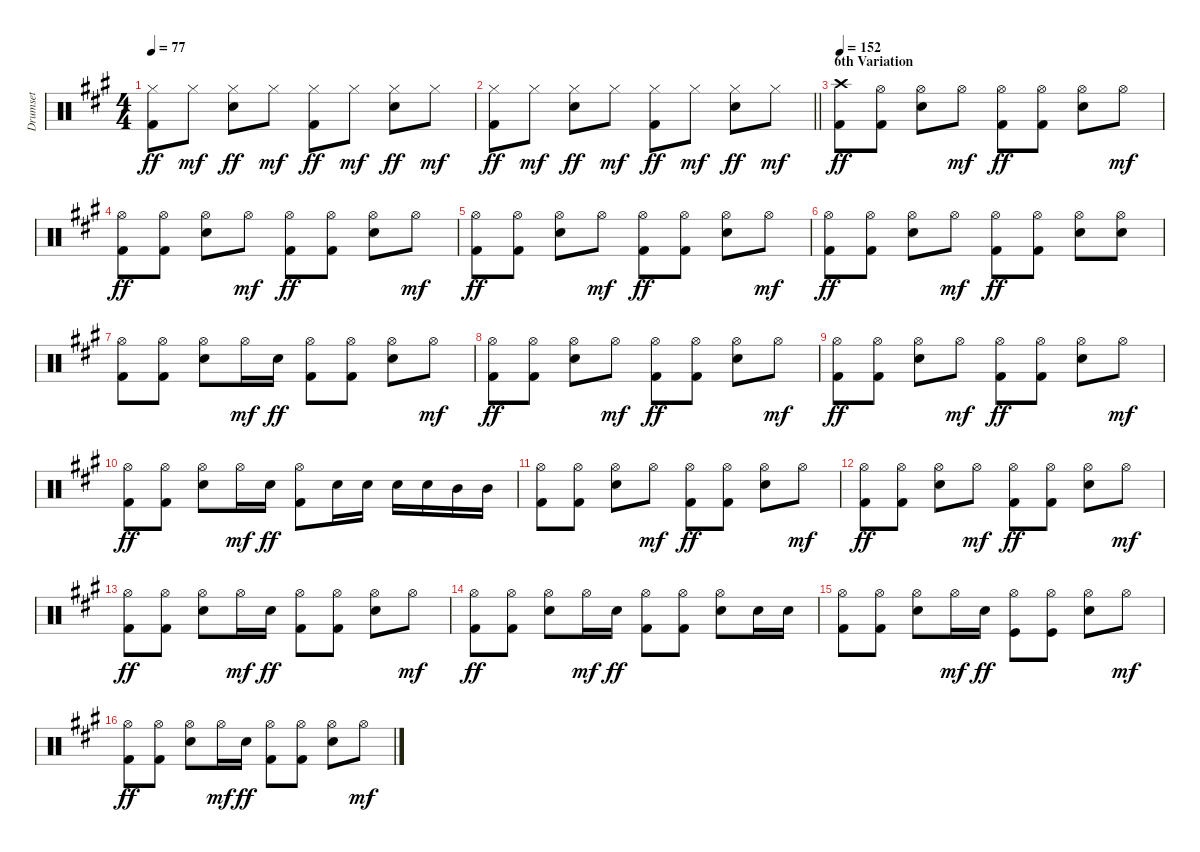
\track ("Drumset" "Drumset") {instrument percussion}
\staff {score}
\articulation defaults
\ts (4 4)
\tempo 77
\clef neutral
\ks a
("Hi-Hat (closed)" "Kick (hit) 2").8{dy ff} "Hi-Hat (closed)".8{dy mf} ("Hi-Hat (closed)" "Electric Snare (hit)").8{dy ff} "Hi-Hat (closed)".8{dy mf} ("Hi-Hat (closed)" "Kick (hit) 2").8{dy ff} "Hi-Hat (closed)".8{dy mf} ("Hi-Hat (closed)" "Electric Snare (hit)").8{dy ff} "Hi-Hat (closed)".8{dy mf} |
\barLineRight lightlight
("Hi-Hat (closed)" "Kick (hit) 2").8{dy ff} "Hi-Hat (closed)".8{dy mf} ("Hi-Hat (closed)" "Electric Snare (hit)").8{dy ff} "Hi-Hat (closed)".8{dy mf} ("Hi-Hat (closed)" "Kick (hit) 2").8{dy ff} "Hi-Hat (closed)".8{dy mf} ("Hi-Hat (closed)" "Electric Snare (hit)").8{dy ff} "Hi-Hat (closed)".8{dy mf} |
\section ("" "6th Variation")
\tempo 152
("Crash high (hit)" "Kick (hit) 2").8{dy ff} ("Hi-Hat (open)" "Kick (hit) 2").8 ("Hi-Hat (open)" "Electric Snare (hit)").8 "Hi-Hat (open)".8{dy mf} ("Hi-Hat (open)" "Kick (hit) 2").8{dy ff} ("Hi-Hat (open)" "Kick (hit) 2").8 ("Hi-Hat (open)" "Electric Snare (hit)").8 "Hi-Hat (open)".8{dy mf} |
("Hi-Hat (open)" "Kick (hit) 2").8{dy ff} ("Hi-Hat (open)" "Kick (hit) 2").8 ("Hi-Hat (open)" "Electric Snare (hit)").8 "Hi-Hat (open)".8{dy mf} ("Hi-Hat (open)" "Kick (hit) 2").8{dy ff} ("Hi-Hat (open)" "Kick (hit) 2").8 ("Hi-Hat (open)" "Electric Snare (hit)").8 "Hi-Hat (open)".8{dy mf} |
("Hi-Hat (open)" "Kick (hit) 2").8{dy ff} ("Hi-Hat (open)" "Kick (hit) 2").8 ("Hi-Hat (open)" "Electric Snare (hit)").8 "Hi-Hat (open)".8{dy mf} ("Hi-Hat (open)" "Kick (hit) 2").8{dy ff} ("Hi-Hat (open)" "Kick (hit) 2").8 ("Hi-Hat (open)" "Electric Snare (hit)").8 "Hi-Hat (open)".8{dy mf} |
("Hi-Hat (open)" "Kick (hit) 2").8{dy ff} ("Hi-Hat (open)" "Kick (hit) 2").8 ("Hi-Hat (open)" "Electric Snare (hit)").8 "Hi-Hat (open)".8{dy mf} ("Hi-Hat (open)" "Kick (hit) 2").8{dy ff} ("Hi-Hat (open)" "Kick (hit) 2").8 ("Hi-Hat (open)" "Electric Snare (hit)").8 ("Hi-Hat (open)" "Electric Snare (hit)").8 |
("Hi-Hat (open)" "Kick (hit) 2").8 ("Hi-Hat (open)" "Kick (hit) 2").8 ("Hi-Hat (open)" "Electric Snare (hit)").8 "Hi-Hat (open)".16{dy mf} "Electric Snare (hit)".16{dy ff} ("Hi-Hat (open)" "Kick (hit) 2").8 ("Hi-Hat (open)" "Kick (hit) 2").8 ("Hi-Hat (open)" "Electric Snare (hit)").8 "Hi-Hat (open)".8{dy mf} |
("Hi-Hat (open)" "Kick (hit) 2").8{dy ff} ("Hi-Hat (open)" "Kick (hit) 2").8 ("Hi-Hat (open)" "Electric Snare (hit)").8 "Hi-Hat (open)".8{dy mf} ("Hi-Hat (open)" "Kick (hit) 2").8{dy ff} ("Hi-Hat (open)" "Kick (hit) 2").8 ("Hi-Hat (open)" "Electric Snare (hit)").8 "Hi-Hat (open)".8{dy mf} |
("Hi-Hat (open)" "Kick (hit) 2").8{dy ff} ("Hi-Hat (open)" "Kick (hit) 2").8 ("Hi-Hat (open)" "Electric Snare (hit)").8 "Hi-Hat (open)".8{dy mf} ("Hi-Hat (open)" "Kick (hit) 2").8{dy ff} ("Hi-Hat (open)" "Kick (hit) 2").8 ("Hi-Hat (open)" "Electric Snare (hit)").8 "Hi-Hat (open)".8{dy mf} |
("Hi-Hat (open)" "Kick (hit) 2").8{dy ff} ("Hi-Hat (open)" "Kick (hit) 2").8 ("Hi-Hat (open)" "Electric Snare (hit)").8 "Hi-Hat (open)".16{dy mf} "Electric Snare (hit)".16{dy ff} ("Hi-Hat (open)" "Kick (hit) 2").8 "Electric Snare (hit)".16 "Electric Snare (hit)".16 "Electric Snare (hit)".16 "Electric Snare (hit)".16 "Mid Tom (hit)".16 "Mid Tom (hit)".16 |
("Hi-Hat (open)" "Kick (hit) 2").8 ("Hi-Hat (open)" "Kick (hit) 2").8 ("Hi-Hat (open)" "Electric Snare (hit)").8 "Hi-Hat (open)".8{dy mf} ("Hi-Hat (open)" "Kick (hit) 2").8{dy ff} ("Hi-Hat (open)" "Kick (hit) 2").8 ("Hi-Hat (open)" "Electric Snare (hit)").8 "Hi-Hat (open)".8{dy mf} |
("Hi-Hat (open)" "Kick (hit) 2").8{dy ff} ("Hi-Hat (open)" "Kick (hit) 2").8 ("Hi-Hat (open)" "Electric Snare (hit)").8 "Hi-Hat (open)".8{dy mf} ("Hi-Hat (open)" "Kick (hit) 2").8{dy ff} ("Hi-Hat (open)" "Kick (hit) 2").8 ("Hi-Hat (open)" "Electric Snare (hit)").8 "Hi-Hat (open)".8{dy mf} |
("Hi-Hat (open)" "Kick (hit) 2").8{dy ff} ("Hi-Hat (open)" "Kick (hit) 2").8 ("Hi-Hat (open)" "Electric Snare (hit)").8 "Hi-Hat (open)".16{dy mf} "Electric Snare (hit)".16{dy ff} ("Hi-Hat (open)" "Kick (hit) 2").8 ("Hi-Hat (open)" "Kick (hit) 2").8 ("Hi-Hat (open)" "Electric Snare (hit)").8 "Hi-Hat (open)".8{dy mf} |
("Hi-Hat (open)" "Kick (hit) 2").8{dy ff} ("Hi-Hat (open)" "Kick (hit) 2").8 ("Hi-Hat (open)" "Electric Snare (hit)").8 "Hi-Hat (open)".16{dy mf} "Electric Snare (hit)".16{dy ff} ("Hi-Hat (open)" "Kick (hit) 2").8 ("Hi-Hat (open)" "Kick (hit) 2").8 ("Hi-Hat (open)" "Electric Snare (hit)").8 "Electric Snare (hit)".16 "Electric Snare (hit)".16 |
("Hi-Hat (open)" "Kick (hit) 2").8 ("Hi-Hat (open)" "Kick (hit) 2").8 ("Hi-Hat (open)" "Electric Snare (hit)").8 "Hi-Hat (open)".16{dy mf} "Electric Snare (hit)".16{dy ff} ("Hi-Hat (open)" "Kick (hit)").8 ("Hi-Hat (open)" "Kick (hit)").8 ("Hi-Hat (open)" "Electric Snare (hit)").8 "Hi-Hat (open)".8{dy mf} |
("Hi-Hat (open)" "Kick (hit) 2").8{dy ff} ("Hi-Hat (open)" "Kick (hit) 2").8 ("Hi-Hat (open)" "Electric Snare (hit)").8 "Hi-Hat (open)".16{dy mf} "Electric Snare (hit)".16{dy ff} ("Hi-Hat (open)" "Kick (hit) 2").8 ("Hi-Hat (open)" "Kick (hit) 2").8 ("Hi-Hat (open)" "Electric Snare (hit)").8 "Hi-Hat (open)".8{dy mf}
